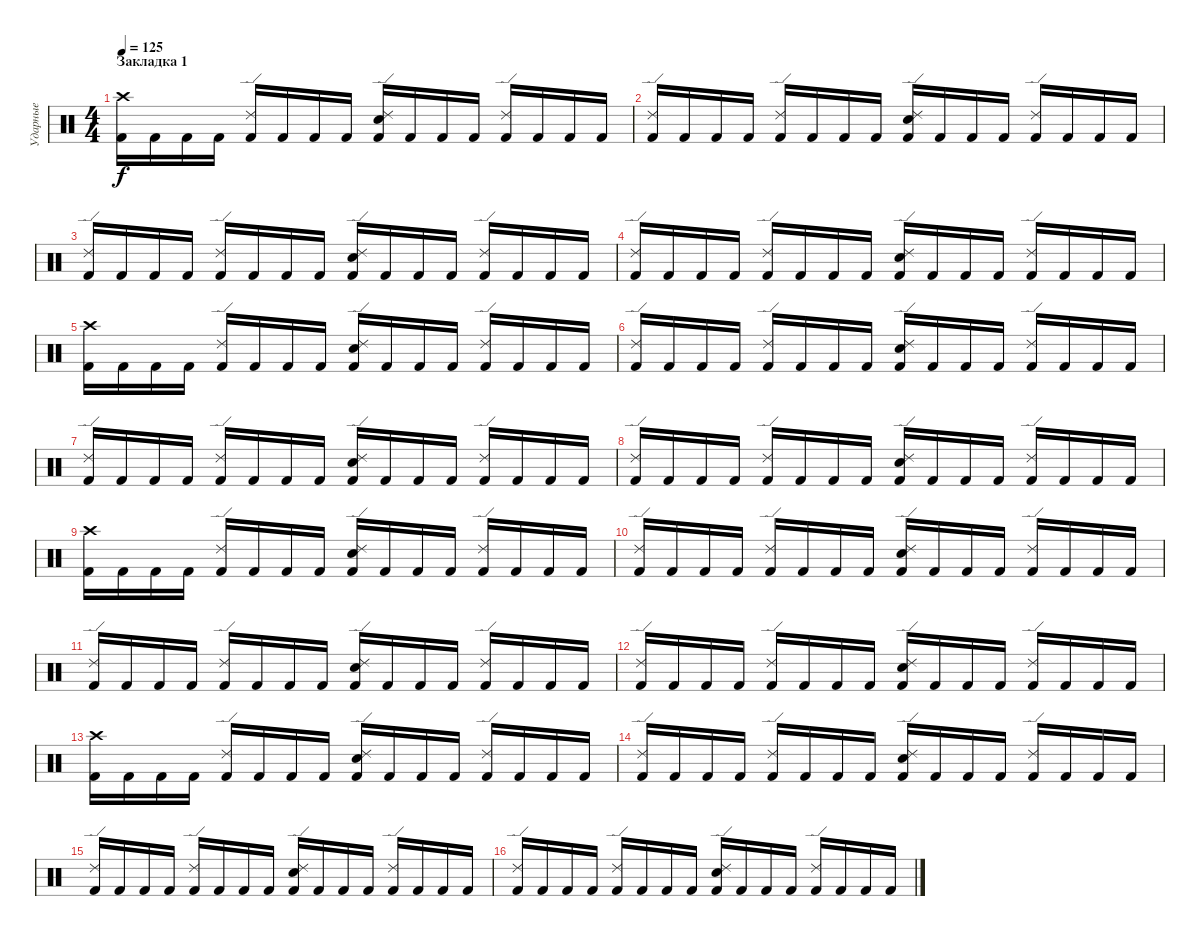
\track ("Ударные" "Ударные") {instrument percussion}
\staff {score}
\articulation defaults
\ts (4 4)
\section ("" "Закладка 1")
\tempo 125
\clef neutral
\ks c
("Crash high (hit)" "Kick (hit) 2").16{dy f} "Kick (hit) 2".16 "Kick (hit) 2".16 "Kick (hit) 2".16 ("Ride (edge) 2" "Kick (hit) 2").16 "Kick (hit) 2".16 "Kick (hit) 2".16 "Kick (hit) 2".16 ("Ride (edge) 2" "Electric Snare (hit)" "Kick (hit) 2").16 "Kick (hit) 2".16 "Kick (hit) 2".16 "Kick (hit) 2".16 ("Ride (edge) 2" "Kick (hit) 2").16 "Kick (hit) 2".16 "Kick (hit) 2".16 "Kick (hit) 2".16 |
("Ride (edge) 2" "Kick (hit) 2").16 "Kick (hit) 2".16 "Kick (hit) 2".16 "Kick (hit) 2".16 ("Ride (edge) 2" "Kick (hit) 2").16 "Kick (hit) 2".16 "Kick (hit) 2".16 "Kick (hit) 2".16 ("Ride (edge) 2" "Electric Snare (hit)" "Kick (hit) 2").16 "Kick (hit) 2".16 "Kick (hit) 2".16 "Kick (hit) 2".16 ("Ride (edge) 2" "Kick (hit) 2").16 "Kick (hit) 2".16 "Kick (hit) 2".16 "Kick (hit) 2".16 |
("Ride (edge) 2" "Kick (hit) 2").16 "Kick (hit) 2".16 "Kick (hit) 2".16 "Kick (hit) 2".16 ("Ride (edge) 2" "Kick (hit) 2").16 "Kick (hit) 2".16 "Kick (hit) 2".16 "Kick (hit) 2".16 ("Ride (edge) 2" "Electric Snare (hit)" "Kick (hit) 2").16 "Kick (hit) 2".16 "Kick (hit) 2".16 "Kick (hit) 2".16 ("Ride (edge) 2" "Kick (hit) 2").16 "Kick (hit) 2".16 "Kick (hit) 2".16 "Kick (hit) 2".16 |
("Ride (edge) 2" "Kick (hit) 2").16 "Kick (hit) 2".16 "Kick (hit) 2".16 "Kick (hit) 2".16 ("Ride (edge) 2" "Kick (hit) 2").16 "Kick (hit) 2".16 "Kick (hit) 2".16 "Kick (hit) 2".16 ("Ride (edge) 2" "Electric Snare (hit)" "Kick (hit) 2").16 "Kick (hit) 2".16 "Kick (hit) 2".16 "Kick (hit) 2".16 ("Ride (edge) 2" "Kick (hit) 2").16 "Kick (hit) 2".16 "Kick (hit) 2".16 "Kick (hit) 2".16 |
("Crash high (hit)" "Kick (hit) 2").16 "Kick (hit) 2".16 "Kick (hit) 2".16 "Kick (hit) 2".16 ("Ride (edge) 2" "Kick (hit) 2").16 "Kick (hit) 2".16 "Kick (hit) 2".16 "Kick (hit) 2".16 ("Ride (edge) 2" "Electric Snare (hit)" "Kick (hit) 2").16 "Kick (hit) 2".16 "Kick (hit) 2".16 "Kick (hit) 2".16 ("Ride (edge) 2" "Kick (hit) 2").16 "Kick (hit) 2".16 "Kick (hit) 2".16 "Kick (hit) 2".16 |
("Ride (edge) 2" "Kick (hit) 2").16 "Kick (hit) 2".16 "Kick (hit) 2".16 "Kick (hit) 2".16 ("Ride (edge) 2" "Kick (hit) 2").16 "Kick (hit) 2".16 "Kick (hit) 2".16 "Kick (hit) 2".16 ("Ride (edge) 2" "Electric Snare (hit)" "Kick (hit) 2").16 "Kick (hit) 2".16 "Kick (hit) 2".16 "Kick (hit) 2".16 ("Ride (edge) 2" "Kick (hit) 2").16 "Kick (hit) 2".16 "Kick (hit) 2".16 "Kick (hit) 2".16 |
("Ride (edge) 2" "Kick (hit) 2").16 "Kick (hit) 2".16 "Kick (hit) 2".16 "Kick (hit) 2".16 ("Ride (edge) 2" "Kick (hit) 2").16 "Kick (hit) 2".16 "Kick (hit) 2".16 "Kick (hit) 2".16 ("Ride (edge) 2" "Electric Snare (hit)" "Kick (hit) 2").16 "Kick (hit) 2".16 "Kick (hit) 2".16 "Kick (hit) 2".16 ("Ride (edge) 2" "Kick (hit) 2").16 "Kick (hit) 2".16 "Kick (hit) 2".16 "Kick (hit) 2".16 |
("Ride (edge) 2" "Kick (hit) 2").16 "Kick (hit) 2".16 "Kick (hit) 2".16 "Kick (hit) 2".16 ("Ride (edge) 2" "Kick (hit) 2").16 "Kick (hit) 2".16 "Kick (hit) 2".16 "Kick (hit) 2".16 ("Ride (edge) 2" "Electric Snare (hit)" "Kick (hit) 2").16 "Kick (hit) 2".16 "Kick (hit) 2".16 "Kick (hit) 2".16 ("Ride (edge) 2" "Kick (hit) 2").16 "Kick (hit) 2".16 "Kick (hit) 2".16 "Kick (hit) 2".16 |
("Crash high (hit)" "Kick (hit) 2").16 "Kick (hit) 2".16 "Kick (hit) 2".16 "Kick (hit) 2".16 ("Ride (edge) 2" "Kick (hit) 2").16 "Kick (hit) 2".16 "Kick (hit) 2".16 "Kick (hit) 2".16 ("Ride (edge) 2" "Electric Snare (hit)" "Kick (hit) 2").16 "Kick (hit) 2".16 "Kick (hit) 2".16 "Kick (hit) 2".16 ("Ride (edge) 2" "Kick (hit) 2").16 "Kick (hit) 2".16 "Kick (hit) 2".16 "Kick (hit) 2".16 |
("Ride (edge) 2" "Kick (hit) 2").16 "Kick (hit) 2".16 "Kick (hit) 2".16 "Kick (hit) 2".16 ("Ride (edge) 2" "Kick (hit) 2").16 "Kick (hit) 2".16 "Kick (hit) 2".16 "Kick (hit) 2".16 ("Ride (edge) 2" "Electric Snare (hit)" "Kick (hit) 2").16 "Kick (hit) 2".16 "Kick (hit) 2".16 "Kick (hit) 2".16 ("Ride (edge) 2" "Kick (hit) 2").16 "Kick (hit) 2".16 "Kick (hit) 2".16 "Kick (hit) 2".16 |
("Ride (edge) 2" "Kick (hit) 2").16 "Kick (hit) 2".16 "Kick (hit) 2".16 "Kick (hit) 2".16 ("Ride (edge) 2" "Kick (hit) 2").16 "Kick (hit) 2".16 "Kick (hit) 2".16 "Kick (hit) 2".16 ("Ride (edge) 2" "Electric Snare (hit)" "Kick (hit) 2").16 "Kick (hit) 2".16 "Kick (hit) 2".16 "Kick (hit) 2".16 ("Ride (edge) 2" "Kick (hit) 2").16 "Kick (hit) 2".16 "Kick (hit) 2".16 "Kick (hit) 2".16 |
("Ride (edge) 2" "Kick (hit) 2").16 "Kick (hit) 2".16 "Kick (hit) 2".16 "Kick (hit) 2".16 ("Ride (edge) 2" "Kick (hit) 2").16 "Kick (hit) 2".16 "Kick (hit) 2".16 "Kick (hit) 2".16 ("Ride (edge) 2" "Electric Snare (hit)" "Kick (hit) 2").16 "Kick (hit) 2".16 "Kick (hit) 2".16 "Kick (hit) 2".16 ("Ride (edge) 2" "Kick (hit) 2").16 "Kick (hit) 2".16 "Kick (hit) 2".16 "Kick (hit) 2".16 |
("Crash high (hit)" "Kick (hit) 2").16 "Kick (hit) 2".16 "Kick (hit) 2".16 "Kick (hit) 2".16 ("Ride (edge) 2" "Kick (hit) 2").16 "Kick (hit) 2".16 "Kick (hit) 2".16 "Kick (hit) 2".16 ("Ride (edge) 2" "Electric Snare (hit)" "Kick (hit) 2").16 "Kick (hit) 2".16 "Kick (hit) 2".16 "Kick (hit) 2".16 ("Ride (edge) 2" "Kick (hit) 2").16 "Kick (hit) 2".16 "Kick (hit) 2".16 "Kick (hit) 2".16 |
("Ride (edge) 2" "Kick (hit) 2").16 "Kick (hit) 2".16 "Kick (hit) 2".16 "Kick (hit) 2".16 ("Ride (edge) 2" "Kick (hit) 2").16 "Kick (hit) 2".16 "Kick (hit) 2".16 "Kick (hit) 2".16 ("Ride (edge) 2" "Electric Snare (hit)" "Kick (hit) 2").16 "Kick (hit) 2".16 "Kick (hit) 2".16 "Kick (hit) 2".16 ("Ride (edge) 2" "Kick (hit) 2").16 "Kick (hit) 2".16 "Kick (hit) 2".16 "Kick (hit) 2".16 |
("Ride (edge) 2" "Kick (hit) 2").16 "Kick (hit) 2".16 "Kick (hit) 2".16 "Kick (hit) 2".16 ("Ride (edge) 2" "Kick (hit) 2").16 "Kick (hit) 2".16 "Kick (hit) 2".16 "Kick (hit) 2".16 ("Ride (edge) 2" "Electric Snare (hit)" "Kick (hit) 2").16 "Kick (hit) 2".16 "Kick (hit) 2".16 "Kick (hit) 2".16 ("Ride (edge) 2" "Kick (hit) 2").16 "Kick (hit) 2".16 "Kick (hit) 2".16 "Kick (hit) 2".16 |
("Ride (edge) 2" "Kick (hit) 2").16 "Kick (hit) 2".16 "Kick (hit) 2".16 "Kick (hit) 2".16 ("Ride (edge) 2" "Kick (hit) 2").16 "Kick (hit) 2".16 "Kick (hit) 2".16 "Kick (hit) 2".16 ("Ride (edge) 2" "Electric Snare (hit)" "Kick (hit) 2").16 "Kick (hit) 2".16 "Kick (hit) 2".16 "Kick (hit) 2".16 ("Ride (edge) 2" "Kick (hit) 2").16 "Kick (hit) 2".16 "Kick (hit) 2".16 "Kick (hit) 2".16
